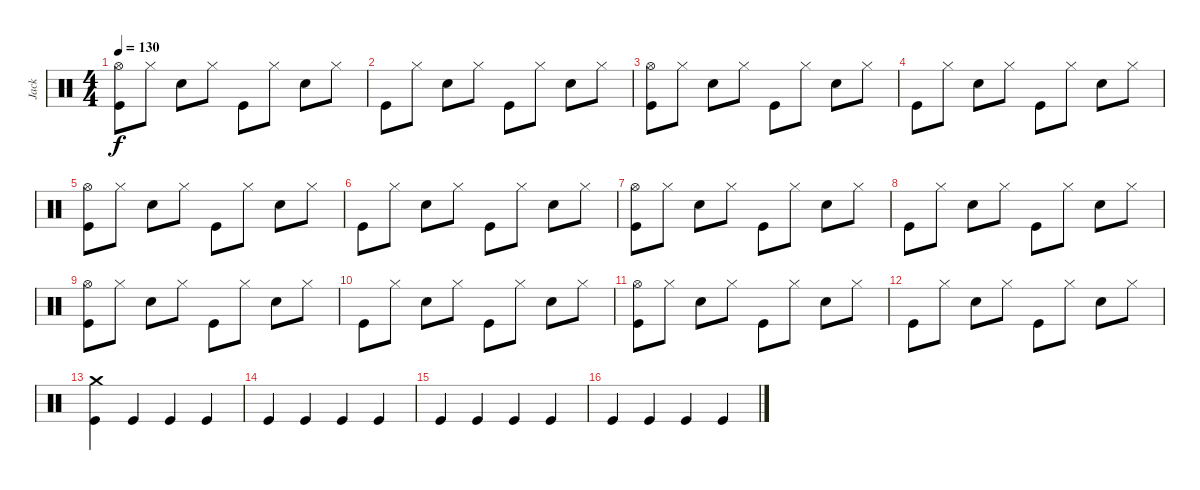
\track ("Jack" "Jack") {instrument percussion}
\staff {score}
\articulation defaults
\ts (4 4)
\tempo 130
\clef neutral
\ks c
("Hi-Hat (open)" "Kick (hit)").8{dy f} "Hi-Hat (closed)".8 "Electric Snare (hit)".8 "Hi-Hat (closed)".8 "Kick (hit)".8 "Hi-Hat (closed)".8 "Electric Snare (hit)".8 "Hi-Hat (closed)".8 |
"Kick (hit)".8 "Hi-Hat (closed)".8 "Electric Snare (hit)".8 "Hi-Hat (closed)".8 "Kick (hit)".8 "Hi-Hat (closed)".8 "Electric Snare (hit)".8 "Hi-Hat (closed)".8 |
("Hi-Hat (open)" "Kick (hit)").8 "Hi-Hat (closed)".8 "Electric Snare (hit)".8 "Hi-Hat (closed)".8 "Kick (hit)".8 "Hi-Hat (closed)".8 "Electric Snare (hit)".8 "Hi-Hat (closed)".8 |
"Kick (hit)".8 "Hi-Hat (closed)".8 "Electric Snare (hit)".8 "Hi-Hat (closed)".8 "Kick (hit)".8 "Hi-Hat (closed)".8 "Electric Snare (hit)".8 "Hi-Hat (closed)".8 |
("Hi-Hat (open)" "Kick (hit)").8 "Hi-Hat (closed)".8 "Electric Snare (hit)".8 "Hi-Hat (closed)".8 "Kick (hit)".8 "Hi-Hat (closed)".8 "Electric Snare (hit)".8 "Hi-Hat (closed)".8 |
"Kick (hit)".8 "Hi-Hat (closed)".8 "Electric Snare (hit)".8 "Hi-Hat (closed)".8 "Kick (hit)".8 "Hi-Hat (closed)".8 "Electric Snare (hit)".8 "Hi-Hat (closed)".8 |
("Hi-Hat (open)" "Kick (hit)").8 "Hi-Hat (closed)".8 "Electric Snare (hit)".8 "Hi-Hat (closed)".8 "Kick (hit)".8 "Hi-Hat (closed)".8 "Electric Snare (hit)".8 "Hi-Hat (closed)".8 |
"Kick (hit)".8 "Hi-Hat (closed)".8 "Electric Snare (hit)".8 "Hi-Hat (closed)".8 "Kick (hit)".8 "Hi-Hat (closed)".8 "Electric Snare (hit)".8 "Hi-Hat (closed)".8 |
("Hi-Hat (open)" "Kick (hit)").8 "Hi-Hat (closed)".8 "Electric Snare (hit)".8 "Hi-Hat (closed)".8 "Kick (hit)".8 "Hi-Hat (closed)".8 "Electric Snare (hit)".8 "Hi-Hat (closed)".8 |
"Kick (hit)".8 "Hi-Hat (closed)".8 "Electric Snare (hit)".8 "Hi-Hat (closed)".8 "Kick (hit)".8 "Hi-Hat (closed)".8 "Electric Snare (hit)".8 "Hi-Hat (closed)".8 |
("Hi-Hat (open)" "Kick (hit)").8 "Hi-Hat (closed)".8 "Electric Snare (hit)".8 "Hi-Hat (closed)".8 "Kick (hit)".8 "Hi-Hat (closed)".8 "Electric Snare (hit)".8 "Hi-Hat (closed)".8 |
"Kick (hit)".8 "Hi-Hat (closed)".8 "Electric Snare (hit)".8 "Hi-Hat (closed)".8 "Kick (hit)".8 "Hi-Hat (closed)".8 "Electric Snare (hit)".8 "Hi-Hat (closed)".8 |
("Crash medium (hit)" "Kick (hit)").4 "Kick (hit)".4 "Kick (hit)".4 "Kick (hit)".4 |
"Kick (hit)".4 "Kick (hit)".4 "Kick (hit)".4 "Kick (hit)".4 |
"Kick (hit)".4 "Kick (hit)".4 "Kick (hit)".4 "Kick (hit)".4 |
"Kick (hit)".4 "Kick (hit)".4 "Kick (hit)".4 "Kick (hit)".4
